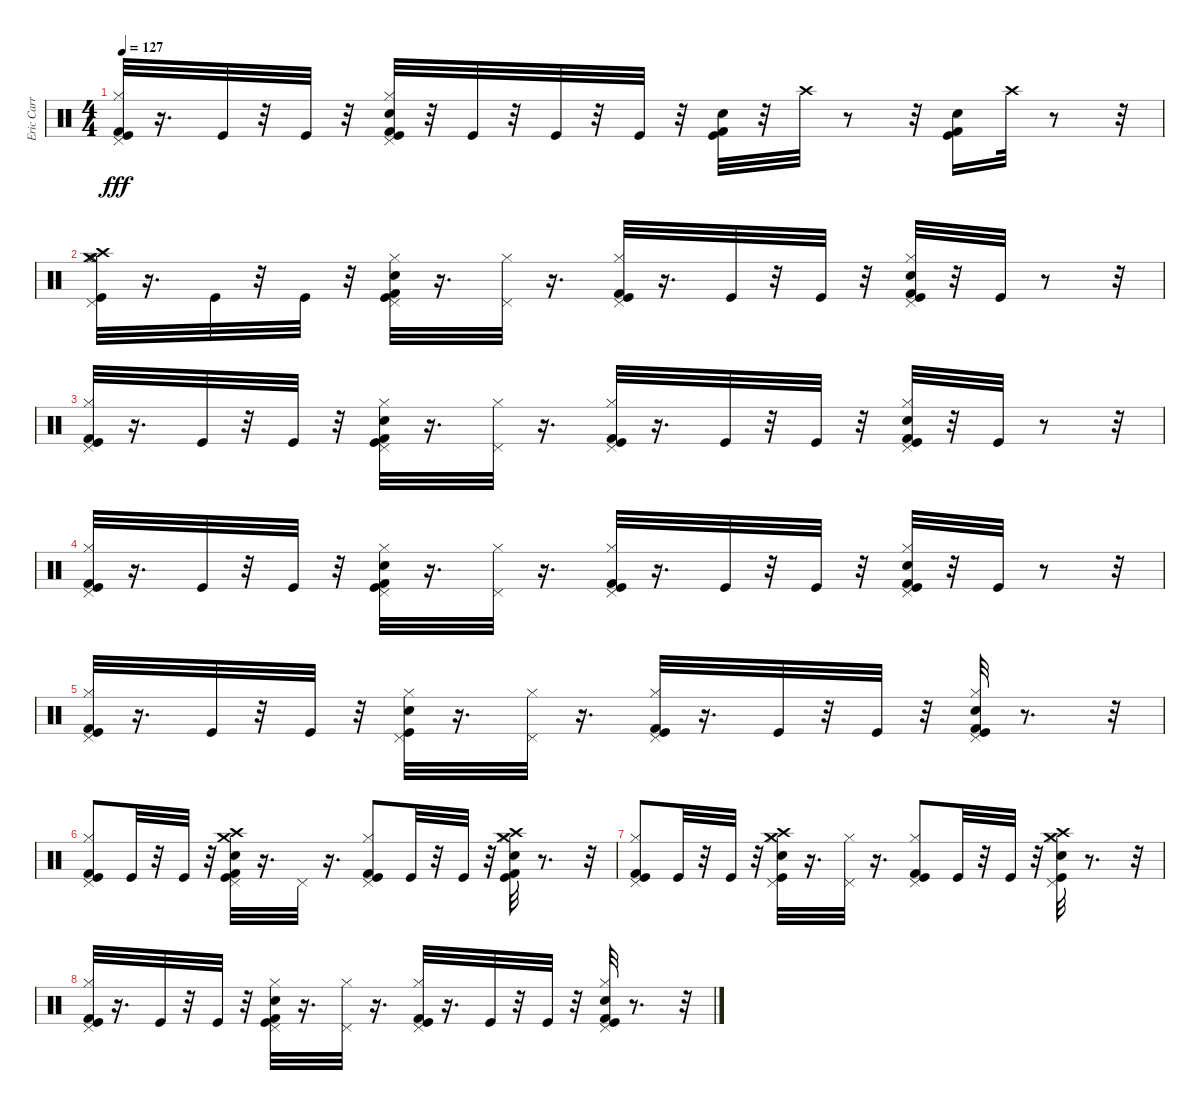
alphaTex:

\track ("Eric Carr - Bateria" "Eric Carr ") {instrument percussion}
\staff {score}
\articulation defaults
\ts (4 4)
\tempo 127
\clef neutral
\ks c
("Kick (hit) 2" "Pedal Hi-Hat (hit)" "Hi-Hat (closed)" "Kick (hit)").32{dy fff} r.16{d} "Kick (hit)".32 r.32 "Kick (hit)".32 r.32 ("Hi-Hat (closed)" "Pedal Hi-Hat (hit)" "Kick (hit)" "Snare (hit) 2" "Kick (hit) 2").32 r.32 "Kick (hit)".32 r.32 "Kick (hit)".32 r.32 "Kick (hit)".32 r.32 ("Snare (hit) 2" "Kick (hit)" "Kick (hit) 2").32 r.32 "Crash high (hit)".32 r.8 r.32 ("Snare (hit) 2" "Kick (hit) 2" "Kick (hit)").16 "Crash high (hit)".32 r.8 r.32 |
("Pedal Hi-Hat (hit)" "Hi-Hat (open)" "Hi-Hat (closed)" "Kick (hit)" "Crash high (hit)" "Crash medium (hit)").32 r.16{d} "Kick (hit)".32 r.32 "Kick (hit)".32 r.32 ("Snare (hit) 2" "Kick (hit)" "Hi-Hat (closed)" "Pedal Hi-Hat (hit)" "Kick (hit) 2").32 r.16{d} ("Hi-Hat (closed)" "Pedal Hi-Hat (hit)").32 r.16{d} ("Pedal Hi-Hat (hit)" "Kick (hit)" "Kick (hit) 2" "Hi-Hat (closed)").32 r.16{d} "Kick (hit)".32 r.32 "Kick (hit)".32 r.32 ("Pedal Hi-Hat (hit)" "Snare (hit) 2" "Kick (hit)" "Hi-Hat (closed)" "Kick (hit) 2").32 r.32 "Kick (hit)".32 r.8 r.32 |
("Hi-Hat (closed)" "Pedal Hi-Hat (hit)" "Kick (hit) 2" "Kick (hit)").32 r.16{d} "Kick (hit)".32 r.32 "Kick (hit)".32 r.32 ("Snare (hit) 2" "Kick (hit)" "Kick (hit) 2" "Pedal Hi-Hat (hit)" "Hi-Hat (closed)").32 r.16{d} ("Pedal Hi-Hat (hit)" "Hi-Hat (closed)").32 r.16{d} ("Hi-Hat (closed)" "Pedal Hi-Hat (hit)" "Kick (hit)" "Kick (hit) 2").32 r.16{d} "Kick (hit)".32 r.32 "Kick (hit)".32 r.32 ("Pedal Hi-Hat (hit)" "Kick (hit)" "Hi-Hat (closed)" "Kick (hit) 2" "Snare (hit) 2").32 r.32 "Kick (hit)".32 r.8 r.32 |
("Hi-Hat (closed)" "Pedal Hi-Hat (hit)" "Kick (hit)" "Kick (hit) 2").32 r.16{d} "Kick (hit)".32 r.32 "Kick (hit)".32 r.32 ("Pedal Hi-Hat (hit)" "Kick (hit) 2" "Hi-Hat (closed)" "Kick (hit)" "Snare (hit) 2").32 r.16{d} ("Hi-Hat (closed)" "Pedal Hi-Hat (hit)").32 r.16{d} ("Kick (hit) 2" "Pedal Hi-Hat (hit)" "Kick (hit)" "Hi-Hat (closed)").32 r.16{d} "Kick (hit)".32 r.32 "Kick (hit)".32 r.32 ("Snare (hit) 2" "Kick (hit) 2" "Kick (hit)" "Pedal Hi-Hat (hit)" "Hi-Hat (closed)").32 r.32 "Kick (hit)".32 r.8 r.32 |
("Pedal Hi-Hat (hit)" "Hi-Hat (closed)" "Kick (hit)" "Kick (hit) 2").32 r.16{d} "Kick (hit)".32 r.32 "Kick (hit)".32 r.32 ("Snare (hit) 2" "Hi-Hat (closed)" "Kick (hit)" "Pedal Hi-Hat (hit)").32 r.16{d} ("Pedal Hi-Hat (hit)" "Hi-Hat (closed)").32 r.16{d} ("Hi-Hat (closed)" "Pedal Hi-Hat (hit)" "Kick (hit)" "Kick (hit) 2").32 r.16{d} "Kick (hit)".32 r.32 "Kick (hit)".32 r.32 ("Pedal Hi-Hat (hit)" "Hi-Hat (closed)" "Kick (hit) 2" "Snare (hit) 2" "Kick (hit)").32 r.8{d} r.32 |
("Kick (hit)" "Kick (hit) 2" "Pedal Hi-Hat (hit)" "Hi-Hat (closed)").8 "Kick (hit)".32 r.32 "Kick (hit)".32 r.32 ("Kick (hit) 2" "Kick (hit)" "Snare (hit) 2" "Crash high (hit)" "Crash medium (hit)" "Pedal Hi-Hat (hit)").32 r.16{d} "Pedal Hi-Hat (hit)".32 r.16{d} ("Kick (hit)" "Kick (hit) 2" "Pedal Hi-Hat (hit)" "Hi-Hat (closed)").8 "Kick (hit)".32 r.32 "Kick (hit)".32 r.32 ("Kick (hit) 2" "Kick (hit)" "Crash high (hit)" "Crash medium (hit)" "Hi-Hat (closed)" "Snare (hit) 2").32 r.8{d} r.32 |
("Pedal Hi-Hat (hit)" "Hi-Hat (closed)" "Kick (hit)" "Kick (hit) 2").8 "Kick (hit)".32 r.32 "Kick (hit)".32 r.32 ("Kick (hit)" "Hi-Hat (closed)" "Pedal Hi-Hat (hit)" "Snare (hit) 2" "Crash medium (hit)" "Crash high (hit)").32 r.16{d} ("Hi-Hat (closed)" "Pedal Hi-Hat (hit)").32 r.16{d} ("Kick (hit) 2" "Hi-Hat (closed)" "Kick (hit)" "Pedal Hi-Hat (hit)").8 "Kick (hit)".32 r.32 "Kick (hit)".32 r.32 ("Pedal Hi-Hat (hit)" "Hi-Hat (closed)" "Crash high (hit)" "Crash medium (hit)" "Snare (hit) 2" "Kick (hit)").32 r.8{d} r.32 |
("Hi-Hat (closed)" "Kick (hit) 2" "Kick (hit)" "Pedal Hi-Hat (hit)").32 r.16{d} "Kick (hit)".32 r.32 "Kick (hit)".32 r.32 ("Pedal Hi-Hat (hit)" "Hi-Hat (closed)" "Snare (hit) 2" "Kick (hit)" "Kick (hit) 2").32 r.16{d} ("Hi-Hat (closed)" "Pedal Hi-Hat (hit)").32 r.16{d} ("Kick (hit)" "Kick (hit) 2" "Hi-Hat (closed)" "Pedal Hi-Hat (hit)").32 r.16{d} "Kick (hit)".32 r.32 "Kick (hit)".32 r.32 ("Pedal Hi-Hat (hit)" "Kick (hit)" "Kick (hit) 2" "Hi-Hat (closed)" "Snare (hit) 2").32 r.8{d} r.32
